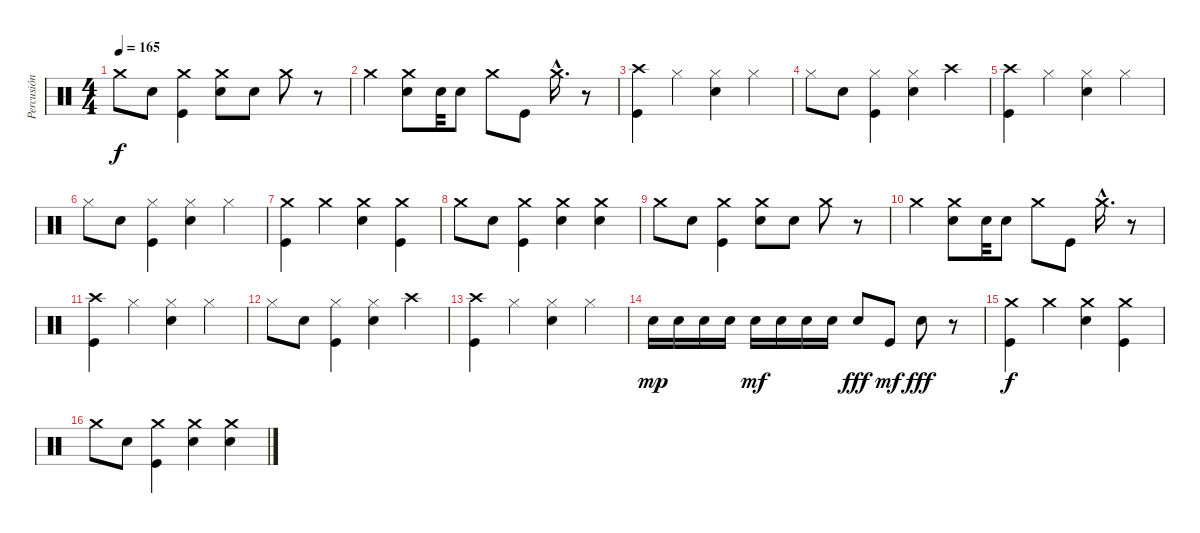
\track ("Percusión" "Percusión") {instrument percussion}
\staff {score}
\articulation defaults
\ts (4 4)
\tempo 165
\clef neutral
\ks c "Crash medium (hit)".8{dy f} "Electric Snare (hit)".8
("Crash medium (hit)" "Kick (hit)").4 ("Crash medium (hit)" "Electric Snare (hit)").8 "Electric Snare (hit)".8 "Crash medium (hit)".8 r.8 |
"Crash medium (hit)".4 ("Crash medium (hit)" "Electric Snare (hit)").8 "Electric Snare (hit)".32 "Electric Snare (hit)".8 "Crash medium (hit)".8 "Kick (hit)".8 "Crash medium (hit)"{hac}.16{d} r.8 |
("Crash high (hit)" "Kick (hit)").4 "Hi-Hat (closed)".4 ("Electric Snare (hit)" "Hi-Hat (closed)").4 "Hi-Hat (closed)".4 |
"Hi-Hat (closed)".8 "Electric Snare (hit)".8 ("Hi-Hat (closed)" "Kick (hit)").4 ("Electric Snare (hit)" "Hi-Hat (closed)").4 "Crash high (hit)".4 |
("Crash high (hit)" "Kick (hit)").4 "Hi-Hat (closed)".4 ("Electric Snare (hit)" "Hi-Hat (closed)").4 "Hi-Hat (closed)".4 |
"Hi-Hat (closed)".8 "Electric Snare (hit)".8 ("Hi-Hat (closed)" "Kick (hit)").4 ("Electric Snare (hit)" "Hi-Hat (closed)").4 "Hi-Hat (closed)".4 |
("Crash medium (hit)" "Kick (hit)").4 "Crash medium (hit)".4 ("Crash medium (hit)" "Electric Snare (hit)").4 ("Crash medium (hit)" "Kick (hit)").4 |
"Crash medium (hit)".8 "Electric Snare (hit)".8 ("Crash medium (hit)" "Kick (hit)").4 ("Crash medium (hit)" "Electric Snare (hit)").4 ("Crash medium (hit)" "Electric Snare (hit)").4 |
"Crash medium (hit)".8 "Electric Snare (hit)".8 ("Crash medium (hit)" "Kick (hit)").4 ("Crash medium (hit)" "Electric Snare (hit)").8 "Electric Snare (hit)".8 "Crash medium (hit)".8 r.8 |
"Crash medium (hit)".4 ("Crash medium (hit)" "Electric Snare (hit)").8 "Electric Snare (hit)".32 "Electric Snare (hit)".8 "Crash medium (hit)".8 "Kick (hit)".8 "Crash medium (hit)"{hac}.16{d} r.8 |
("Crash high (hit)" "Kick (hit)").4 "Hi-Hat (closed)".4 ("Electric Snare (hit)" "Hi-Hat (closed)").4 "Hi-Hat (closed)".4 |
"Hi-Hat (closed)".8 "Electric Snare (hit)".8 ("Hi-Hat (closed)" "Kick (hit)").4 ("Electric Snare (hit)" "Hi-Hat (closed)").4 "Crash high (hit)".4 |
("Crash high (hit)" "Kick (hit)").4 "Hi-Hat (closed)".4 ("Electric Snare (hit)" "Hi-Hat (closed)").4 "Hi-Hat (closed)".4 |
"Electric Snare (hit)".16{dy mp} "Electric Snare (hit)".16 "Electric Snare (hit)".16 "Electric Snare (hit)".16 "Electric Snare (hit)".16{dy mf} "Electric Snare (hit)".16 "Electric Snare (hit)".16 "Electric Snare (hit)".16 "Electric Snare (hit)".8{dy fff} "Kick (hit)".8{dy mf} "Electric Snare (hit)".8{dy fff} r.8 |
("Crash medium (hit)" "Kick (hit)").4{dy f} "Crash medium (hit)".4 ("Crash medium (hit)" "Electric Snare (hit)").4 ("Crash medium (hit)" "Kick (hit)").4 |
"Crash medium (hit)".8 "Electric Snare (hit)".8 ("Crash medium (hit)" "Kick (hit)").4 ("Crash medium (hit)" "Electric Snare (hit)").4 ("Crash medium (hit)" "Electric Snare (hit)").4
